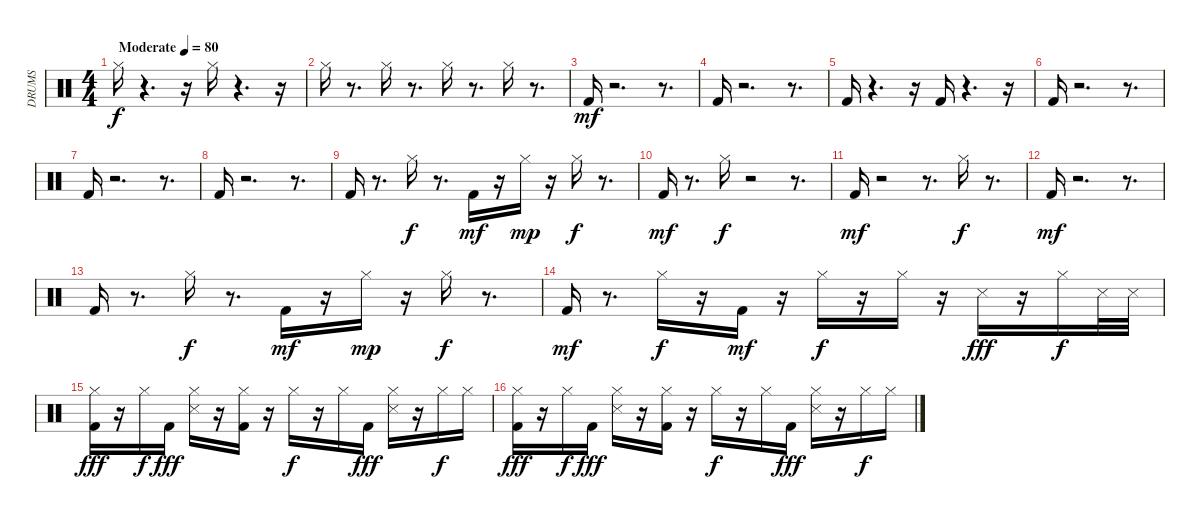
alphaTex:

\track ("DRUMS" "DRUMS") {instrument percussion}
\staff {score}
\articulation defaults
\ts (4 4)
\tempo (80 "Moderate")
\clef neutral
\ks c "Hi-Hat (closed)".16{dy f}
r.4{d} r.16 "Hi-Hat (closed)".16 r.4{d} r.16 |
"Hi-Hat (closed)".16 r.8{d} "Hi-Hat (closed)".16 r.8{d} "Hi-Hat (closed)".16 r.8{d} "Hi-Hat (closed)".16 r.8{d} |
"Kick (hit) 2".16{dy mf} r.2{d} r.8{d} |
"Kick (hit) 2".16 r.2{d} r.8{d} |
"Kick (hit) 2".16 r.4{d} r.16 "Kick (hit) 2".16 r.4{d} r.16 |
"Kick (hit) 2".16 r.2{d} r.8{d} |
"Kick (hit) 2".16 r.2{d} r.8{d} |
"Kick (hit) 2".16 r.2{d} r.8{d} |
"Kick (hit) 2".16 r.8{d} "Hi-Hat (closed)".16{dy f} r.8{d} "Kick (hit) 2".16{dy mf} r.16 "Hi-Hat (closed)".16{dy mp} r.16 "Hi-Hat (closed)".16{dy f} r.8{d} |
"Kick (hit) 2".16{dy mf} r.8{d} "Hi-Hat (closed)".16{dy f} r.2 r.8{d} |
"Kick (hit) 2".16{dy mf} r.2 r.8{d} "Hi-Hat (closed)".16{dy f} r.8{d} |
"Kick (hit) 2".16{dy mf} r.2{d} r.8{d} |
"Kick (hit) 2".16 r.8{d} "Hi-Hat (closed)".16{dy f} r.8{d} "Kick (hit) 2".16{dy mf} r.16 "Hi-Hat (closed)".16{dy mp} r.16 "Hi-Hat (closed)".16{dy f} r.8{d} |
"Kick (hit) 2".16{dy mf} r.8{d} "Hi-Hat (closed)".16{dy f} r.16 "Kick (hit) 2".16{dy mf} r.16 "Hi-Hat (closed)".16{dy f} r.16 "Hi-Hat (closed)".16 r.16 "Metronome (hit)".16{dy fff} r.16 "Hi-Hat (closed)".16{dy f} "Metronome (hit)".32 "Metronome (hit)".32 |
("Kick (hit) 2" "Hi-Hat (closed)").16{dy fff} r.16 "Hi-Hat (closed)".16{dy f} "Kick (hit) 2".16{dy fff} ("Hi-Hat (closed)" "Metronome (hit)").16 r.16 ("Kick (hit) 2" "Hi-Hat (closed)").16 r.16 "Hi-Hat (closed)".16{dy f} r.16 "Hi-Hat (closed)".16 "Kick (hit) 2".16{dy fff} ("Hi-Hat (closed)" "Metronome (hit)").16 r.16 "Hi-Hat (closed)".16{dy f} "Hi-Hat (closed)".16 |
("Kick (hit) 2" "Hi-Hat (closed)").16{dy fff} r.16 "Hi-Hat (closed)".16{dy f} "Kick (hit) 2".16{dy fff} ("Hi-Hat (closed)" "Metronome (hit)").16 r.16 ("Kick (hit) 2" "Hi-Hat (closed)").16 r.16 "Hi-Hat (closed)".16{dy f} r.16 "Hi-Hat (closed)".16 "Kick (hit) 2".16{dy fff} ("Hi-Hat (closed)" "Metronome (hit)").16 r.16 "Hi-Hat (closed)".16{dy f} "Hi-Hat (closed)".16
